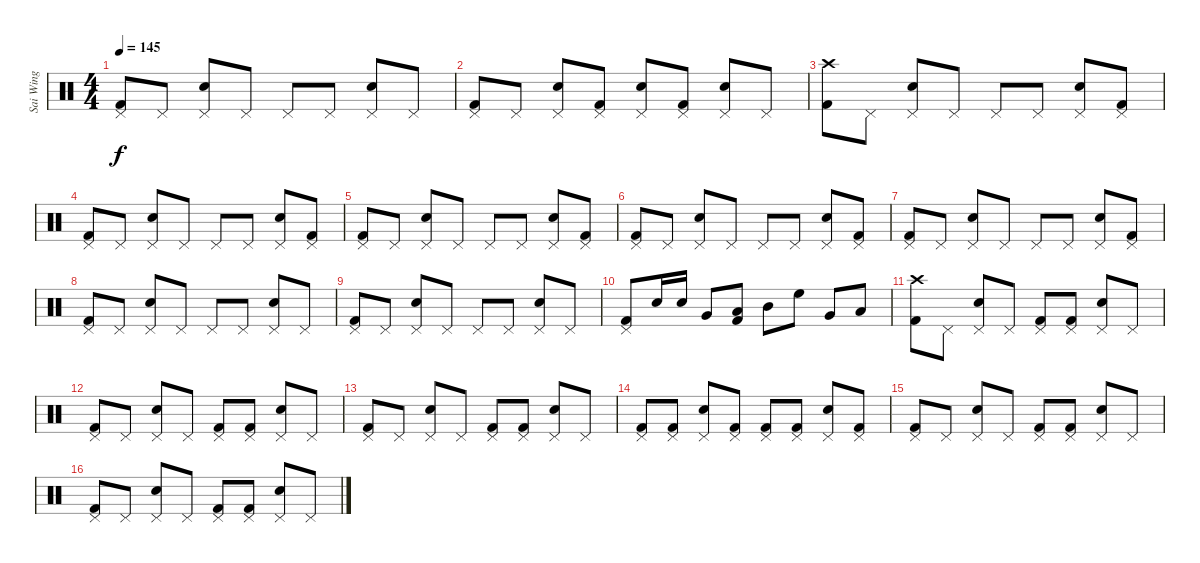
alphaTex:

\track ("Sai Wing" "Sai Wing") {instrument percussion}
\staff {score}
\articulation defaults
\ts (4 4)
\tempo 145
\clef neutral
\ks c
("Pedal Hi-Hat (hit)" "Kick (hit) 2").8{dy f} "Pedal Hi-Hat (hit)".8 ("Pedal Hi-Hat (hit)" "Snare (hit) 2").8 "Pedal Hi-Hat (hit)".8 "Pedal Hi-Hat (hit)".8 "Pedal Hi-Hat (hit)".8 ("Pedal Hi-Hat (hit)" "Snare (hit) 2").8 "Pedal Hi-Hat (hit)".8 |
("Pedal Hi-Hat (hit)" "Kick (hit) 2").8 "Pedal Hi-Hat (hit)".8 ("Pedal Hi-Hat (hit)" "Snare (hit) 2").8 ("Pedal Hi-Hat (hit)" "Kick (hit) 2").8 ("Pedal Hi-Hat (hit)" "Snare (hit) 2").8 ("Pedal Hi-Hat (hit)" "Kick (hit) 2").8 ("Pedal Hi-Hat (hit)" "Snare (hit) 2").8 "Pedal Hi-Hat (hit)".8 |
("Crash high (hit)" "Kick (hit) 2").8 "Pedal Hi-Hat (hit)".8 ("Pedal Hi-Hat (hit)" "Snare (hit) 2").8 "Pedal Hi-Hat (hit)".8 "Pedal Hi-Hat (hit)".8 "Pedal Hi-Hat (hit)".8 ("Pedal Hi-Hat (hit)" "Snare (hit) 2").8 ("Pedal Hi-Hat (hit)" "Kick (hit) 2").8 |
("Pedal Hi-Hat (hit)" "Kick (hit) 2").8 "Pedal Hi-Hat (hit)".8 ("Pedal Hi-Hat (hit)" "Snare (hit) 2").8 "Pedal Hi-Hat (hit)".8 "Pedal Hi-Hat (hit)".8 "Pedal Hi-Hat (hit)".8 ("Pedal Hi-Hat (hit)" "Snare (hit) 2").8 ("Pedal Hi-Hat (hit)" "Kick (hit) 2").8 |
("Pedal Hi-Hat (hit)" "Kick (hit) 2").8 "Pedal Hi-Hat (hit)".8 ("Pedal Hi-Hat (hit)" "Snare (hit) 2").8 "Pedal Hi-Hat (hit)".8 "Pedal Hi-Hat (hit)".8 "Pedal Hi-Hat (hit)".8 ("Pedal Hi-Hat (hit)" "Snare (hit) 2").8 ("Pedal Hi-Hat (hit)" "Kick (hit) 2").8 |
("Pedal Hi-Hat (hit)" "Kick (hit) 2").8 "Pedal Hi-Hat (hit)".8 ("Pedal Hi-Hat (hit)" "Snare (hit) 2").8 "Pedal Hi-Hat (hit)".8 "Pedal Hi-Hat (hit)".8 "Pedal Hi-Hat (hit)".8 ("Pedal Hi-Hat (hit)" "Snare (hit) 2").8 ("Pedal Hi-Hat (hit)" "Kick (hit) 2").8 |
("Pedal Hi-Hat (hit)" "Kick (hit) 2").8 "Pedal Hi-Hat (hit)".8 ("Pedal Hi-Hat (hit)" "Snare (hit) 2").8 "Pedal Hi-Hat (hit)".8 "Pedal Hi-Hat (hit)".8 "Pedal Hi-Hat (hit)".8 ("Pedal Hi-Hat (hit)" "Snare (hit) 2").8 ("Pedal Hi-Hat (hit)" "Kick (hit) 2").8 |
("Pedal Hi-Hat (hit)" "Kick (hit) 2").8 "Pedal Hi-Hat (hit)".8 ("Pedal Hi-Hat (hit)" "Snare (hit) 2").8 "Pedal Hi-Hat (hit)".8 "Pedal Hi-Hat (hit)".8 "Pedal Hi-Hat (hit)".8 ("Pedal Hi-Hat (hit)" "Snare (hit) 2").8 "Pedal Hi-Hat (hit)".8 |
("Pedal Hi-Hat (hit)" "Kick (hit) 2").8 "Pedal Hi-Hat (hit)".8 ("Pedal Hi-Hat (hit)" "Snare (hit) 2").8 "Pedal Hi-Hat (hit)".8 "Pedal Hi-Hat (hit)".8 "Pedal Hi-Hat (hit)".8 ("Pedal Hi-Hat (hit)" "Snare (hit) 2").8 "Pedal Hi-Hat (hit)".8 |
("Pedal Hi-Hat (hit)" "Kick (hit) 2").8 "Snare (hit) 2".16 "Snare (hit) 2".16 "Very Low Tom (hit)".8 ("Low Tom (hit)" "Kick (hit) 2").8 "Mid Tom (hit)".8 "High Floor Tom (hit)".8 "Very Low Tom (hit)".8 "Low Tom (hit)".8 |
("Crash high (hit)" "Kick (hit) 2").8 "Pedal Hi-Hat (hit)".8 ("Pedal Hi-Hat (hit)" "Snare (hit) 2").8 "Pedal Hi-Hat (hit)".8 ("Pedal Hi-Hat (hit)" "Kick (hit) 2").8 ("Pedal Hi-Hat (hit)" "Kick (hit) 2").8 ("Pedal Hi-Hat (hit)" "Snare (hit) 2").8 "Pedal Hi-Hat (hit)".8 |
("Pedal Hi-Hat (hit)" "Kick (hit) 2").8 "Pedal Hi-Hat (hit)".8 ("Pedal Hi-Hat (hit)" "Snare (hit) 2").8 "Pedal Hi-Hat (hit)".8 ("Pedal Hi-Hat (hit)" "Kick (hit) 2").8 ("Pedal Hi-Hat (hit)" "Kick (hit) 2").8 ("Pedal Hi-Hat (hit)" "Snare (hit) 2").8 "Pedal Hi-Hat (hit)".8 |
("Pedal Hi-Hat (hit)" "Kick (hit) 2").8 "Pedal Hi-Hat (hit)".8 ("Pedal Hi-Hat (hit)" "Snare (hit) 2").8 "Pedal Hi-Hat (hit)".8 ("Pedal Hi-Hat (hit)" "Kick (hit) 2").8 ("Pedal Hi-Hat (hit)" "Kick (hit) 2").8 ("Pedal Hi-Hat (hit)" "Snare (hit) 2").8 "Pedal Hi-Hat (hit)".8 |
("Pedal Hi-Hat (hit)" "Kick (hit) 2").8 ("Pedal Hi-Hat (hit)" "Kick (hit) 2").8 ("Pedal Hi-Hat (hit)" "Snare (hit) 2").8 ("Pedal Hi-Hat (hit)" "Kick (hit) 2").8 ("Pedal Hi-Hat (hit)" "Kick (hit) 2").8 ("Pedal Hi-Hat (hit)" "Kick (hit) 2").8 ("Pedal Hi-Hat (hit)" "Snare (hit) 2").8 ("Pedal Hi-Hat (hit)" "Kick (hit) 2").8 |
("Pedal Hi-Hat (hit)" "Kick (hit) 2").8 "Pedal Hi-Hat (hit)".8 ("Pedal Hi-Hat (hit)" "Snare (hit) 2").8 "Pedal Hi-Hat (hit)".8 ("Pedal Hi-Hat (hit)" "Kick (hit) 2").8 ("Pedal Hi-Hat (hit)" "Kick (hit) 2").8 ("Pedal Hi-Hat (hit)" "Snare (hit) 2").8 "Pedal Hi-Hat (hit)".8 |
("Pedal Hi-Hat (hit)" "Kick (hit) 2").8 "Pedal Hi-Hat (hit)".8 ("Pedal Hi-Hat (hit)" "Snare (hit) 2").8 "Pedal Hi-Hat (hit)".8 ("Pedal Hi-Hat (hit)" "Kick (hit) 2").8 ("Pedal Hi-Hat (hit)" "Kick (hit) 2").8 ("Pedal Hi-Hat (hit)" "Snare (hit) 2").8 "Pedal Hi-Hat (hit)".8
